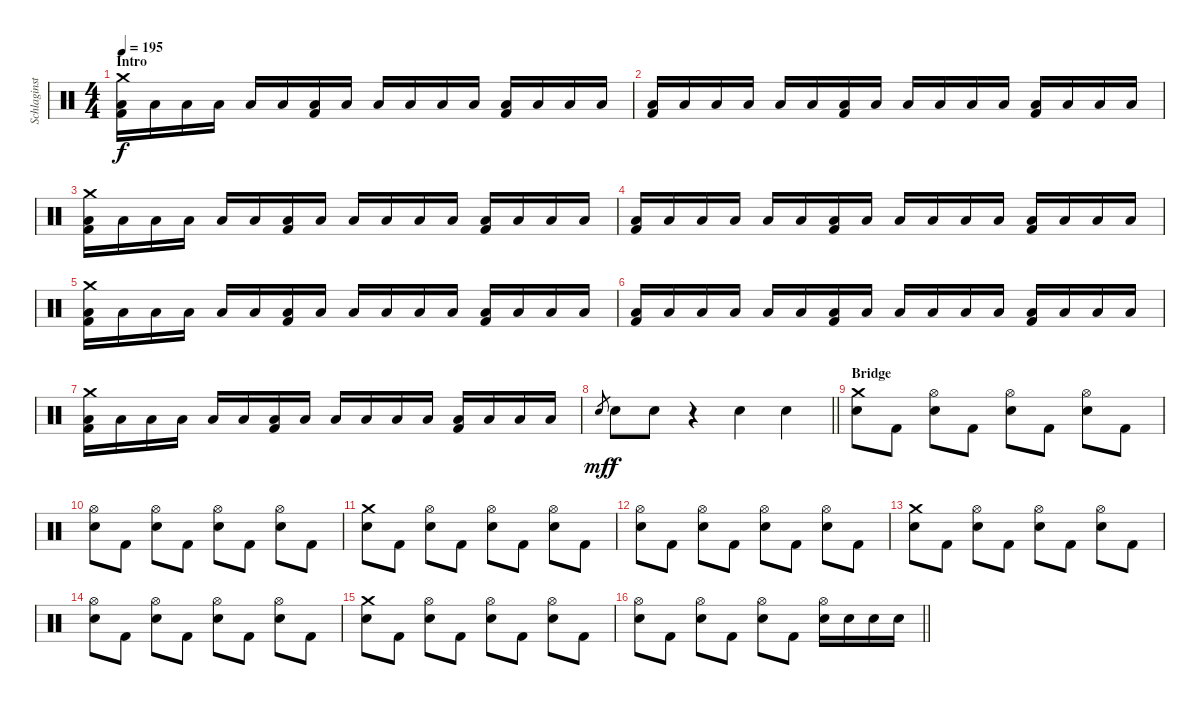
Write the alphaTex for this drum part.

\track ("Schlaginstrumente - Auswahl" "Schlaginst") {instrument percussion}
\staff {score}
\articulation defaults
\ts (4 4)
\section ("" "Intro")
\tempo 195
\clef neutral
\ks c
("Crash medium (hit)" "Low Floor Tom (hit)" "Kick (hit) 2").16{dy f} "Low Floor Tom (hit)".16 "Low Floor Tom (hit)".16 "Low Floor Tom (hit)".16 "Low Floor Tom (hit)".16 "Low Floor Tom (hit)".16 ("Low Floor Tom (hit)" "Kick (hit) 2").16 "Low Floor Tom (hit)".16 "Low Floor Tom (hit)".16 "Low Floor Tom (hit)".16 "Low Floor Tom (hit)".16 "Low Floor Tom (hit)".16 ("Low Floor Tom (hit)" "Kick (hit) 2").16 "Low Floor Tom (hit)".16 "Low Floor Tom (hit)".16 "Low Floor Tom (hit)".16 |
("Low Floor Tom (hit)" "Kick (hit) 2").16 "Low Floor Tom (hit)".16 "Low Floor Tom (hit)".16 "Low Floor Tom (hit)".16 "Low Floor Tom (hit)".16 "Low Floor Tom (hit)".16 ("Low Floor Tom (hit)" "Kick (hit) 2").16 "Low Floor Tom (hit)".16 "Low Floor Tom (hit)".16 "Low Floor Tom (hit)".16 "Low Floor Tom (hit)".16 "Low Floor Tom (hit)".16 ("Low Floor Tom (hit)" "Kick (hit) 2").16 "Low Floor Tom (hit)".16 "Low Floor Tom (hit)".16 "Low Floor Tom (hit)".16 |
("Crash medium (hit)" "Low Floor Tom (hit)" "Kick (hit) 2").16 "Low Floor Tom (hit)".16 "Low Floor Tom (hit)".16 "Low Floor Tom (hit)".16 "Low Floor Tom (hit)".16 "Low Floor Tom (hit)".16 ("Low Floor Tom (hit)" "Kick (hit) 2").16 "Low Floor Tom (hit)".16 "Low Floor Tom (hit)".16 "Low Floor Tom (hit)".16 "Low Floor Tom (hit)".16 "Low Floor Tom (hit)".16 ("Low Floor Tom (hit)" "Kick (hit) 2").16 "Low Floor Tom (hit)".16 "Low Floor Tom (hit)".16 "Low Floor Tom (hit)".16 |
("Low Floor Tom (hit)" "Kick (hit) 2").16 "Low Floor Tom (hit)".16 "Low Floor Tom (hit)".16 "Low Floor Tom (hit)".16 "Low Floor Tom (hit)".16 "Low Floor Tom (hit)".16 ("Low Floor Tom (hit)" "Kick (hit) 2").16 "Low Floor Tom (hit)".16 "Low Floor Tom (hit)".16 "Low Floor Tom (hit)".16 "Low Floor Tom (hit)".16 "Low Floor Tom (hit)".16 ("Low Floor Tom (hit)" "Kick (hit) 2").16 "Low Floor Tom (hit)".16 "Low Floor Tom (hit)".16 "Low Floor Tom (hit)".16 |
("Crash medium (hit)" "Low Floor Tom (hit)" "Kick (hit) 2").16 "Low Floor Tom (hit)".16 "Low Floor Tom (hit)".16 "Low Floor Tom (hit)".16 "Low Floor Tom (hit)".16 "Low Floor Tom (hit)".16 ("Low Floor Tom (hit)" "Kick (hit) 2").16 "Low Floor Tom (hit)".16 "Low Floor Tom (hit)".16 "Low Floor Tom (hit)".16 "Low Floor Tom (hit)".16 "Low Floor Tom (hit)".16 ("Low Floor Tom (hit)" "Kick (hit) 2").16 "Low Floor Tom (hit)".16 "Low Floor Tom (hit)".16 "Low Floor Tom (hit)".16 |
("Low Floor Tom (hit)" "Kick (hit) 2").16 "Low Floor Tom (hit)".16 "Low Floor Tom (hit)".16 "Low Floor Tom (hit)".16 "Low Floor Tom (hit)".16 "Low Floor Tom (hit)".16 ("Low Floor Tom (hit)" "Kick (hit) 2").16 "Low Floor Tom (hit)".16 "Low Floor Tom (hit)".16 "Low Floor Tom (hit)".16 "Low Floor Tom (hit)".16 "Low Floor Tom (hit)".16 ("Low Floor Tom (hit)" "Kick (hit) 2").16 "Low Floor Tom (hit)".16 "Low Floor Tom (hit)".16 "Low Floor Tom (hit)".16 |
("Crash medium (hit)" "Low Floor Tom (hit)" "Kick (hit) 2").16 "Low Floor Tom (hit)".16 "Low Floor Tom (hit)".16 "Low Floor Tom (hit)".16 "Low Floor Tom (hit)".16 "Low Floor Tom (hit)".16 ("Low Floor Tom (hit)" "Kick (hit) 2").16 "Low Floor Tom (hit)".16 "Low Floor Tom (hit)".16 "Low Floor Tom (hit)".16 "Low Floor Tom (hit)".16 "Low Floor Tom (hit)".16 ("Low Floor Tom (hit)" "Kick (hit) 2").16 "Low Floor Tom (hit)".16 "Low Floor Tom (hit)".16 "Low Floor Tom (hit)".16 |
\barLineRight lightlight "Snare (hit) 2".8{gr dy mf} "Snare (hit) 2".8{dy f} "Snare (hit) 2".8
r.4 "Snare (hit) 2".4 "Snare (hit) 2".4 |
\section ("" "Bridge")
("Crash medium (hit)" "Snare (hit) 2").8 "Kick (hit) 2".8 ("Hi-Hat (open)" "Snare (hit) 2").8 "Kick (hit) 2".8 ("Hi-Hat (open)" "Snare (hit) 2").8 "Kick (hit) 2".8 ("Hi-Hat (open)" "Snare (hit) 2").8 "Kick (hit) 2".8 |
("Hi-Hat (open)" "Snare (hit) 2").8 "Kick (hit) 2".8 ("Hi-Hat (open)" "Snare (hit) 2").8 "Kick (hit) 2".8 ("Hi-Hat (open)" "Snare (hit) 2").8 "Kick (hit) 2".8 ("Hi-Hat (open)" "Snare (hit) 2").8 "Kick (hit) 2".8 |
("Crash medium (hit)" "Snare (hit) 2").8 "Kick (hit) 2".8 ("Hi-Hat (open)" "Snare (hit) 2").8 "Kick (hit) 2".8 ("Hi-Hat (open)" "Snare (hit) 2").8 "Kick (hit) 2".8 ("Hi-Hat (open)" "Snare (hit) 2").8 "Kick (hit) 2".8 |
("Hi-Hat (open)" "Snare (hit) 2").8 "Kick (hit) 2".8 ("Hi-Hat (open)" "Snare (hit) 2").8 "Kick (hit) 2".8 ("Hi-Hat (open)" "Snare (hit) 2").8 "Kick (hit) 2".8 ("Hi-Hat (open)" "Snare (hit) 2").8 "Kick (hit) 2".8 |
("Crash medium (hit)" "Snare (hit) 2").8 "Kick (hit) 2".8 ("Hi-Hat (open)" "Snare (hit) 2").8 "Kick (hit) 2".8 ("Hi-Hat (open)" "Snare (hit) 2").8 "Kick (hit) 2".8 ("Hi-Hat (open)" "Snare (hit) 2").8 "Kick (hit) 2".8 |
("Hi-Hat (open)" "Snare (hit) 2").8 "Kick (hit) 2".8 ("Hi-Hat (open)" "Snare (hit) 2").8 "Kick (hit) 2".8 ("Hi-Hat (open)" "Snare (hit) 2").8 "Kick (hit) 2".8 ("Hi-Hat (open)" "Snare (hit) 2").8 "Kick (hit) 2".8 |
("Crash medium (hit)" "Snare (hit) 2").8 "Kick (hit) 2".8 ("Hi-Hat (open)" "Snare (hit) 2").8 "Kick (hit) 2".8 ("Hi-Hat (open)" "Snare (hit) 2").8 "Kick (hit) 2".8 ("Hi-Hat (open)" "Snare (hit) 2").8 "Kick (hit) 2".8 |
\barLineRight lightlight
("Hi-Hat (open)" "Snare (hit) 2").8 "Kick (hit) 2".8 ("Hi-Hat (open)" "Snare (hit) 2").8 "Kick (hit) 2".8 ("Hi-Hat (open)" "Snare (hit) 2").8 "Kick (hit) 2".8 ("Hi-Hat (open)" "Snare (hit) 2").16 "Snare (hit) 2".16 "Snare (hit) 2".16 "Snare (hit) 2".16
